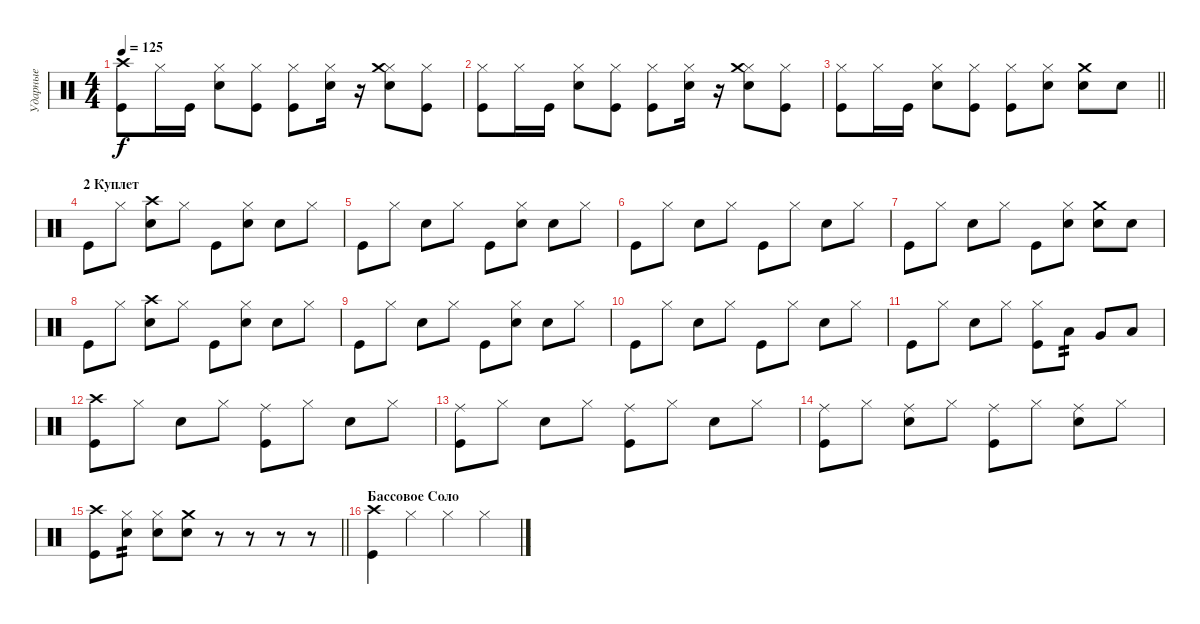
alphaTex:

\track ("Ударные" "Ударные") {instrument percussion}
\staff {score}
\articulation defaults
\ts (4 4)
\tempo 125
\clef neutral
\ks c
("Crash high (hit)" "Kick (hit)").8{dy f} "Hi-Hat (closed)".16 "Kick (hit)".16 ("Hi-Hat (closed)" "Electric Snare (hit)").8 ("Hi-Hat (closed)" "Kick (hit)").8 ("Hi-Hat (closed)" "Kick (hit)").8 ("Hi-Hat (closed)" "Electric Snare (hit)").16 r.16 ("Hi-Hat (closed)" "Crash medium (hit)" "Electric Snare (hit)").8 ("Hi-Hat (closed)" "Kick (hit)").8 |
("Hi-Hat (closed)" "Kick (hit)").8 "Hi-Hat (closed)".16 "Kick (hit)".16 ("Hi-Hat (closed)" "Electric Snare (hit)").8 ("Hi-Hat (closed)" "Kick (hit)").8 ("Hi-Hat (closed)" "Kick (hit)").8 ("Hi-Hat (closed)" "Electric Snare (hit)").16 r.16 ("Hi-Hat (closed)" "Crash medium (hit)" "Electric Snare (hit)").8 ("Hi-Hat (closed)" "Kick (hit)").8 |
\barLineRight lightlight
("Hi-Hat (closed)" "Kick (hit)").8 "Hi-Hat (closed)".16 "Kick (hit)".16 ("Hi-Hat (closed)" "Electric Snare (hit)").8 ("Hi-Hat (closed)" "Kick (hit)").8 ("Hi-Hat (closed)" "Kick (hit)").8 ("Hi-Hat (closed)" "Electric Snare (hit)").8 ("Crash medium (hit)" "Electric Snare (hit)").8 "Electric Snare (hit)".8 |
\section ("" "2 Куплет")
"Kick (hit)".8 "Hi-Hat (closed)".8 ("Crash high (hit)" "Electric Snare (hit)").8 "Hi-Hat (closed)".8 "Kick (hit)".8 ("Hi-Hat (closed)" "Electric Snare (hit)").8 "Electric Snare (hit)".8 "Hi-Hat (closed)".8 |
"Kick (hit)".8 "Hi-Hat (closed)".8 "Electric Snare (hit)".8 "Hi-Hat (closed)".8 "Kick (hit)".8 ("Hi-Hat (closed)" "Electric Snare (hit)").8 "Electric Snare (hit)".8 "Hi-Hat (closed)".8 |
"Kick (hit)".8 "Hi-Hat (closed)".8 "Electric Snare (hit)".8 "Hi-Hat (closed)".8 "Kick (hit)".8 "Hi-Hat (closed)".8 "Electric Snare (hit)".8 "Hi-Hat (closed)".8 |
"Kick (hit)".8 "Hi-Hat (closed)".8 "Electric Snare (hit)".8 "Hi-Hat (closed)".8 "Kick (hit)".8 ("Hi-Hat (closed)" "Electric Snare (hit)").8 ("Crash medium (hit)" "Electric Snare (hit)").8 "Electric Snare (hit)".8 |
"Kick (hit)".8 "Hi-Hat (closed)".8 ("Crash high (hit)" "Electric Snare (hit)").8 "Hi-Hat (closed)".8 "Kick (hit)".8 ("Hi-Hat (closed)" "Electric Snare (hit)").8 "Electric Snare (hit)".8 "Hi-Hat (closed)".8 |
"Kick (hit)".8 "Hi-Hat (closed)".8 "Electric Snare (hit)".8 "Hi-Hat (closed)".8 "Kick (hit)".8 ("Hi-Hat (closed)" "Electric Snare (hit)").8 "Electric Snare (hit)".8 "Hi-Hat (closed)".8 |
"Kick (hit)".8 "Hi-Hat (closed)".8 "Electric Snare (hit)".8 "Hi-Hat (closed)".8 "Kick (hit)".8 "Hi-Hat (closed)".8 "Electric Snare (hit)".8 "Hi-Hat (closed)".8 |
"Kick (hit)".8 "Hi-Hat (closed)".8 "Electric Snare (hit)".8 "Hi-Hat (closed)".8 ("Hi-Hat (closed)" "Kick (hit)").8 "Low Tom (hit)".8{tp 2} "Very Low Tom (hit)".8 "Low Floor Tom (hit)".8 |
("Crash high (hit)" "Kick (hit)").8 "Hi-Hat (closed)".8 "Electric Snare (hit)".8 "Hi-Hat (closed)".8 ("Ride (middle)" "Kick (hit)").8 "Hi-Hat (closed)".8 "Electric Snare (hit)".8 "Hi-Hat (closed)".8 |
("Ride (middle)" "Kick (hit)").8 "Hi-Hat (closed)".8 "Electric Snare (hit)".8 "Hi-Hat (closed)".8 ("Ride (middle)" "Kick (hit)").8 "Hi-Hat (closed)".8 "Electric Snare (hit)".8 "Hi-Hat (closed)".8 |
("Ride (middle)" "Kick (hit)").8 "Hi-Hat (closed)".8 ("Ride (middle)" "Electric Snare (hit)").8 "Hi-Hat (closed)".8 ("Ride (middle)" "Kick (hit)").8 "Hi-Hat (closed)".8 ("Ride (middle)" "Electric Snare (hit)").8 "Hi-Hat (closed)".8 |
\barLineRight lightlight
("Crash high (hit)" "Kick (hit)").8 ("Hi-Hat (closed)" "Electric Snare (hit)").8{tp 2} ("Hi-Hat (closed)" "Electric Snare (hit)").8 ("Crash medium (hit)" "Electric Snare (hit)").8 r.8 r.8 r.8 r.8 |
\section ("" "Бассовое Соло")
("Crash high (hit)" "Kick (hit)").4 "Hi-Hat (closed)".4 "Hi-Hat (closed)".4 "Hi-Hat (closed)".4
